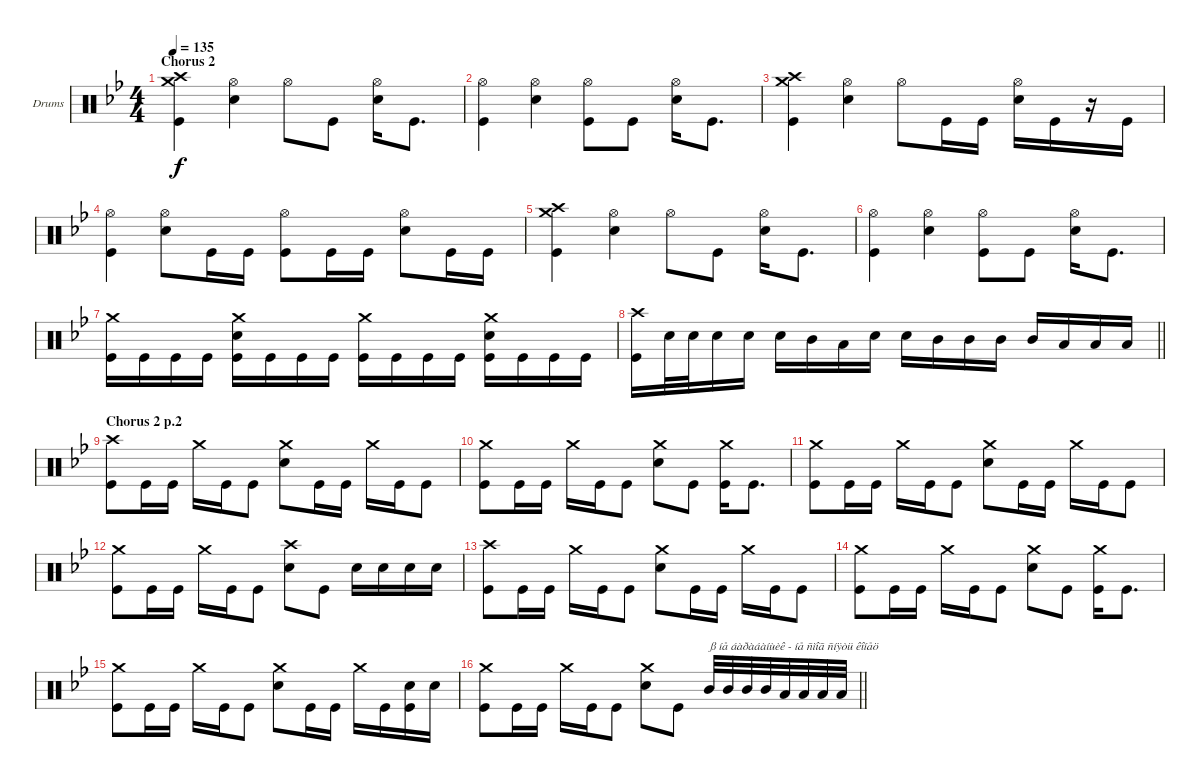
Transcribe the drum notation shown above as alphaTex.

\bracketExtendMode groupsimilarinstruments
\firstSystemTrackNameOrientation horizontal
\otherSystemsTrackNameOrientation horizontal
\track ("Drumkit" "Drums") {instrument percussion}
\staff {score}
\articulation defaults
\ts (4 4)
\section ("" "Chorus 2")
\tempo 135
\clef neutral
\ks gminor
("Crash medium (hit)" "Crash high (hit)" "Kick (hit)").4{dy f} ("Hi-Hat (open)" "Snare (hit) 2").4 "Hi-Hat (open)".8 "Kick (hit)".8 ("Hi-Hat (open)" "Snare (hit) 2").16 "Kick (hit)".8{d} |
("Hi-Hat (open)" "Kick (hit)").4 ("Hi-Hat (open)" "Snare (hit) 2").4 ("Hi-Hat (open)" "Kick (hit)").8 "Kick (hit)".8 ("Hi-Hat (open)" "Snare (hit) 2").16 "Kick (hit)".8{d} |
("Crash medium (hit)" "Crash high (hit)" "Kick (hit)").4 ("Hi-Hat (open)" "Snare (hit) 2").4 "Hi-Hat (open)".8 "Kick (hit)".16 "Kick (hit)".16 ("Hi-Hat (open)" "Snare (hit) 2").16 "Kick (hit)".16 r.16 "Kick (hit)".16 |
("Hi-Hat (open)" "Kick (hit)").4 ("Hi-Hat (open)" "Snare (hit) 2").8 "Kick (hit)".16 "Kick (hit)".16 ("Hi-Hat (open)" "Kick (hit)").8 "Kick (hit)".16 "Kick (hit)".16 ("Hi-Hat (open)" "Snare (hit) 2").8 "Kick (hit)".16 "Kick (hit)".16 |
("Crash medium (hit)" "Crash high (hit)" "Kick (hit)").4 ("Hi-Hat (open)" "Snare (hit) 2").4 "Hi-Hat (open)".8 "Kick (hit)".8 ("Hi-Hat (open)" "Snare (hit) 2").16 "Kick (hit)".8{d} |
("Hi-Hat (open)" "Kick (hit)").4 ("Hi-Hat (open)" "Snare (hit) 2").4 ("Hi-Hat (open)" "Kick (hit)").8 "Kick (hit)".8 ("Hi-Hat (open)" "Snare (hit) 2").16 "Kick (hit)".8{d} |
("Crash medium (hit)" "Kick (hit)").16 "Kick (hit)".16 "Kick (hit)".16 "Kick (hit)".16 ("Crash medium (hit)" "Snare (hit) 2" "Kick (hit)").16 "Kick (hit)".16 "Kick (hit)".16 "Kick (hit)".16 ("Crash medium (hit)" "Kick (hit)").16 "Kick (hit)".16 "Kick (hit)".16 "Kick (hit)".16 ("Crash medium (hit)" "Snare (hit) 2" "Kick (hit)").16 "Kick (hit)".16 "Kick (hit)".16 "Kick (hit)".16 |
\barLineRight lightlight
("Crash high (hit)" "Kick (hit)").16 "Snare (hit) 2".32 "Snare (hit) 2".32 "Snare (hit) 2".16 "Snare (hit) 2".16 "Snare (hit) 2".16 "Mid Tom (hit)".16 "Low Tom (hit)".16 "Snare (hit) 2".16 "Snare (hit) 2".16 "Mid Tom (hit)".16 "Mid Tom (hit)".16 "Mid Tom (hit)".16 "Mid Tom (hit)".16 "Low Tom (hit)".16 "Low Tom (hit)".16 "Low Tom (hit)".16 |
\section ("" "Chorus 2 p.2")
("Crash high (hit)" "Kick (hit)").8 "Kick (hit)".16 "Kick (hit)".16 "Crash medium (hit)".16 "Kick (hit)".16 "Kick (hit)".8 ("Crash medium (hit)" "Snare (hit) 2").8 "Kick (hit)".16 "Kick (hit)".16 "Crash medium (hit)".16 "Kick (hit)".16 "Kick (hit)".8 |
("Crash medium (hit)" "Kick (hit)").8 "Kick (hit)".16 "Kick (hit)".16 "Crash medium (hit)".16 "Kick (hit)".16 "Kick (hit)".8 ("Crash medium (hit)" "Snare (hit) 2").8 "Kick (hit)".8 ("Crash medium (hit)" "Kick (hit)").16 "Kick (hit)".8{d} |
("Crash medium (hit)" "Kick (hit)").8 "Kick (hit)".16 "Kick (hit)".16 "Crash medium (hit)".16 "Kick (hit)".16 "Kick (hit)".8 ("Crash medium (hit)" "Snare (hit) 2").8 "Kick (hit)".16 "Kick (hit)".16 "Crash medium (hit)".16 "Kick (hit)".16 "Kick (hit)".8 |
("Crash medium (hit)" "Kick (hit)").8 "Kick (hit)".16 "Kick (hit)".16 "Crash medium (hit)".16 "Kick (hit)".16 "Kick (hit)".8 ("Crash high (hit)" "Snare (hit) 2").8 "Kick (hit)".8 "Snare (hit) 2".16 "Snare (hit) 2".16 "Snare (hit) 2".16 "Snare (hit) 2".16 |
("Crash high (hit)" "Kick (hit)").8 "Kick (hit)".16 "Kick (hit)".16 "Crash medium (hit)".16 "Kick (hit)".16 "Kick (hit)".8 ("Crash medium (hit)" "Snare (hit) 2").8 "Kick (hit)".16 "Kick (hit)".16 "Crash medium (hit)".16 "Kick (hit)".16 "Kick (hit)".8 |
("Crash medium (hit)" "Kick (hit)").8 "Kick (hit)".16 "Kick (hit)".16 "Crash medium (hit)".16 "Kick (hit)".16 "Kick (hit)".8 ("Crash medium (hit)" "Snare (hit) 2").8 "Kick (hit)".8 ("Crash medium (hit)" "Kick (hit)").16 "Kick (hit)".8{d} |
("Crash medium (hit)" "Kick (hit)").8 "Kick (hit)".16 "Kick (hit)".16 "Crash medium (hit)".16 "Kick (hit)".16 "Kick (hit)".8 ("Crash medium (hit)" "Snare (hit) 2").8 "Kick (hit)".16 "Kick (hit)".16 "Crash medium (hit)".16 "Kick (hit)".16 ("Snare (hit) 2" "Kick (hit)").16 "Snare (hit) 2".16 |
\barLineRight lightlight
("Crash medium (hit)" "Kick (hit)").8 "Kick (hit)".16 "Kick (hit)".16 "Crash medium (hit)".16 "Kick (hit)".16 "Kick (hit)".8 ("Crash medium (hit)" "Snare (hit) 2").8 "Kick (hit)".8 "Mid Tom (hit)".32{txt "ß íå áàðàáàíùèê - íå ñìîã ñíÿòü êîíåö"} "Mid Tom (hit)".32 "Mid Tom (hit)".32 "Mid Tom (hit)".32 "Low Tom (hit)".32 "Low Tom (hit)".32 "Low Tom (hit)".32 "Low Tom (hit)".32
